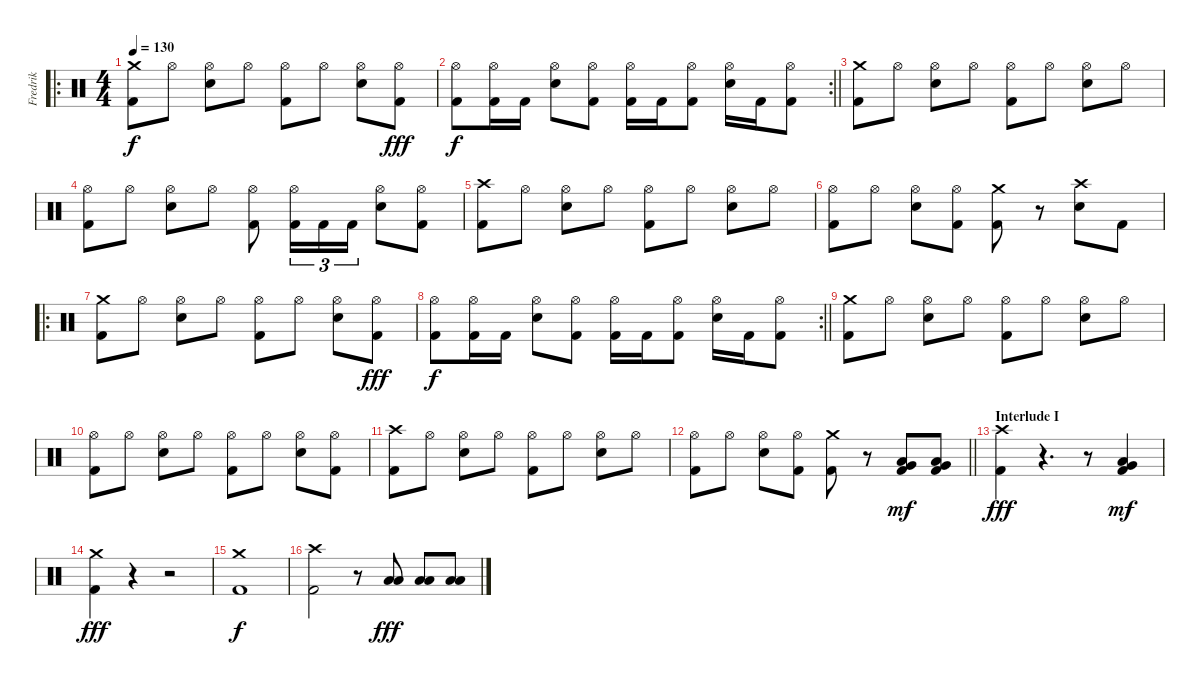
\track ("Fredrik" "Fredrik") {instrument percussion}
\staff {score}
\articulation defaults
\ro
\ts (4 4)
\tempo 130
\clef neutral
\ks c
("Crash medium (hit)" "Kick (hit) 2").8{dy f} "Hi-Hat (open)".8 ("Hi-Hat (open)" "Electric Snare (hit)").8 "Hi-Hat (open)".8 ("Hi-Hat (open)" "Kick (hit) 2").8 "Hi-Hat (open)".8 ("Hi-Hat (open)" "Electric Snare (hit)").8 ("Hi-Hat (open)" "Kick (hit) 2").8{dy fff} |
\rc 2
\barLineRight lightlight
("Hi-Hat (open)" "Kick (hit) 2").8{dy f} ("Hi-Hat (open)" "Kick (hit) 2").16 "Kick (hit) 2".16 ("Hi-Hat (open)" "Electric Snare (hit)").8 ("Hi-Hat (open)" "Kick (hit) 2").8 ("Hi-Hat (open)" "Kick (hit) 2").16 "Kick (hit) 2".16 ("Hi-Hat (open)" "Kick (hit) 2").8 ("Hi-Hat (open)" "Electric Snare (hit)").16 "Kick (hit) 2".16 ("Hi-Hat (open)" "Kick (hit) 2").8 |
("Crash medium (hit)" "Kick (hit) 2").8 "Hi-Hat (open)".8 ("Hi-Hat (open)" "Electric Snare (hit)").8 "Hi-Hat (open)".8 ("Hi-Hat (open)" "Kick (hit) 2").8 "Hi-Hat (open)".8 ("Hi-Hat (open)" "Electric Snare (hit)").8 "Hi-Hat (open)".8 |
("Hi-Hat (open)" "Kick (hit) 2").8 "Hi-Hat (open)".8 ("Hi-Hat (open)" "Electric Snare (hit)").8 "Hi-Hat (open)".8 ("Hi-Hat (open)" "Kick (hit) 2").8 ("Hi-Hat (open)" "Kick (hit) 2").16{tu (3 2)} "Kick (hit) 2".16{tu (3 2)} "Kick (hit) 2".16{tu (3 2)} ("Hi-Hat (open)" "Electric Snare (hit)").8 ("Hi-Hat (open)" "Kick (hit) 2").8 |
("Crash high (hit)" "Kick (hit) 2").8 "Hi-Hat (open)".8 ("Hi-Hat (open)" "Electric Snare (hit)").8 "Hi-Hat (open)".8 ("Hi-Hat (open)" "Kick (hit) 2").8 "Hi-Hat (open)".8 ("Hi-Hat (open)" "Electric Snare (hit)").8 "Hi-Hat (open)".8 |
("Hi-Hat (open)" "Kick (hit) 2").8 "Hi-Hat (open)".8 ("Hi-Hat (open)" "Electric Snare (hit)").8 ("Hi-Hat (open)" "Kick (hit) 2").8 ("Crash medium (hit)" "Kick (hit) 2").8 r.8 ("Crash high (hit)" "Electric Snare (hit)").8 "Kick (hit) 2".8 |
\ro
("Crash medium (hit)" "Kick (hit) 2").8 "Hi-Hat (open)".8 ("Hi-Hat (open)" "Electric Snare (hit)").8 "Hi-Hat (open)".8 ("Hi-Hat (open)" "Kick (hit) 2").8 "Hi-Hat (open)".8 ("Hi-Hat (open)" "Electric Snare (hit)").8 ("Hi-Hat (open)" "Kick (hit) 2").8{dy fff} |
\rc 2
\barLineRight lightlight
("Hi-Hat (open)" "Kick (hit) 2").8{dy f} ("Hi-Hat (open)" "Kick (hit) 2").16 "Kick (hit) 2".16 ("Hi-Hat (open)" "Electric Snare (hit)").8 ("Hi-Hat (open)" "Kick (hit) 2").8 ("Hi-Hat (open)" "Kick (hit) 2").16 "Kick (hit) 2".16 ("Hi-Hat (open)" "Kick (hit) 2").8 ("Hi-Hat (open)" "Electric Snare (hit)").16 "Kick (hit) 2".16 ("Hi-Hat (open)" "Kick (hit) 2").8 |
("Crash medium (hit)" "Kick (hit) 2").8 "Hi-Hat (open)".8 ("Hi-Hat (open)" "Electric Snare (hit)").8 "Hi-Hat (open)".8 ("Hi-Hat (open)" "Kick (hit) 2").8 "Hi-Hat (open)".8 ("Hi-Hat (open)" "Electric Snare (hit)").8 "Hi-Hat (open)".8 |
("Hi-Hat (open)" "Kick (hit) 2").8 "Hi-Hat (open)".8 ("Hi-Hat (open)" "Electric Snare (hit)").8 "Hi-Hat (open)".8 ("Hi-Hat (open)" "Kick (hit) 2").8 "Hi-Hat (open)".8 ("Hi-Hat (open)" "Electric Snare (hit)").8 ("Hi-Hat (open)" "Kick (hit) 2").8 |
("Crash high (hit)" "Kick (hit) 2").8 "Hi-Hat (open)".8 ("Hi-Hat (open)" "Electric Snare (hit)").8 "Hi-Hat (open)".8 ("Hi-Hat (open)" "Kick (hit) 2").8 "Hi-Hat (open)".8 ("Hi-Hat (open)" "Electric Snare (hit)").8 "Hi-Hat (open)".8 |
\barLineRight lightlight
("Hi-Hat (open)" "Kick (hit) 2").8 "Hi-Hat (open)".8 ("Hi-Hat (open)" "Electric Snare (hit)").8 ("Hi-Hat (open)" "Kick (hit) 2").8 ("Crash medium (hit)" "Kick (hit) 2").8 r.8 ("Low Tom (hit)" "Very Low Tom (hit)" "Kick (hit) 2").8{dy mf} ("Very Low Tom (hit)" "Low Floor Tom (hit)" "Kick (hit) 2").8 |
\section ("" "Interlude I")
("Crash high (hit)" "Kick (hit) 2").4{dy fff} r.4{d} r.8 ("Very Low Tom (hit)" "Low Floor Tom (hit)" "Kick (hit) 2").4{dy mf} |
("Crash medium (hit)" "Kick (hit) 2").4{dy fff} r.4 r.2 |
("Crash medium (hit)" "Kick (hit) 2").1{dy f} |
("Crash high (hit)" "Kick (hit) 2").2 r.8 ("Low Tom (hit)" "Low Floor Tom (hit)").8{dy fff} ("Low Tom (hit)" "Low Floor Tom (hit)").8 ("Low Tom (hit)" "Low Floor Tom (hit)").8
